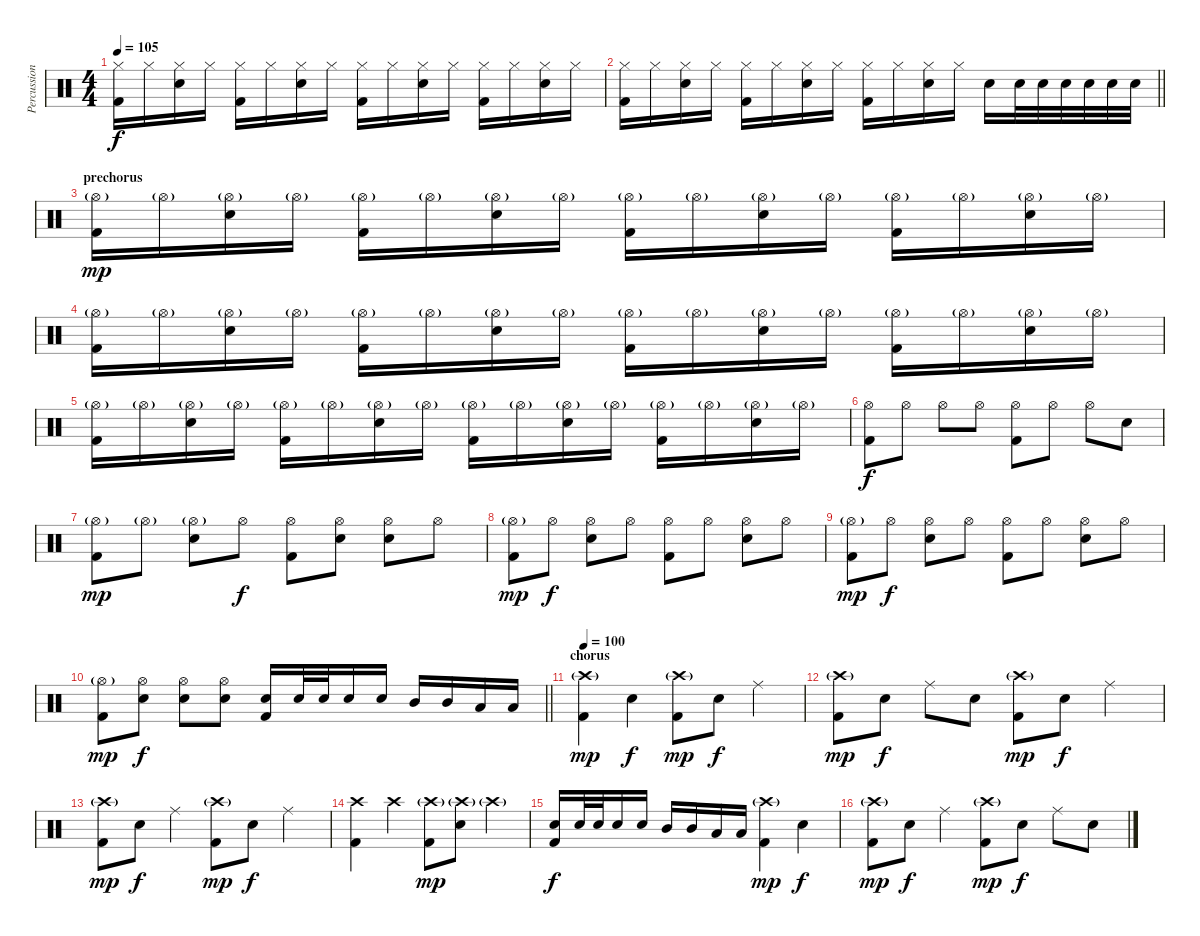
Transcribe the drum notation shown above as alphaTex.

\track ("Percussion" "Percussion") {instrument percussion}
\staff {score}
\articulation defaults
\ts (4 4)
\tempo 105
\clef neutral
\ks c
("Hi-Hat (closed)" "Kick (hit) 2").16{dy f} "Hi-Hat (closed)".16 ("Hi-Hat (closed)" "Electric Snare (hit)").16 "Hi-Hat (closed)".16 ("Hi-Hat (closed)" "Kick (hit) 2").16 "Hi-Hat (closed)".16 ("Hi-Hat (closed)" "Electric Snare (hit)").16 "Hi-Hat (closed)".16 ("Hi-Hat (closed)" "Kick (hit) 2").16 "Hi-Hat (closed)".16 ("Hi-Hat (closed)" "Electric Snare (hit)").16 "Hi-Hat (closed)".16 ("Hi-Hat (closed)" "Kick (hit) 2").16 "Hi-Hat (closed)".16 ("Hi-Hat (closed)" "Electric Snare (hit)").16 "Hi-Hat (closed)".16 |
\barLineRight lightlight
("Hi-Hat (closed)" "Kick (hit) 2").16 "Hi-Hat (closed)".16 ("Hi-Hat (closed)" "Electric Snare (hit)").16 "Hi-Hat (closed)".16 ("Hi-Hat (closed)" "Kick (hit) 2").16 "Hi-Hat (closed)".16 ("Hi-Hat (closed)" "Electric Snare (hit)").16 "Hi-Hat (closed)".16 ("Hi-Hat (closed)" "Kick (hit) 2").16 "Hi-Hat (closed)".16 ("Hi-Hat (closed)" "Electric Snare (hit)").16 "Hi-Hat (closed)".16 "Electric Snare (hit)".16 "Electric Snare (hit)".32 "Electric Snare (hit)".32 "Electric Snare (hit)".32 "Electric Snare (hit)".32 "Electric Snare (hit)".32 "Electric Snare (hit)".32 |
\section ("" "prechorus")
("Hi-Hat (open)"{g} "Kick (hit) 2").16{dy mp} "Hi-Hat (open)"{g}.16 ("Hi-Hat (open)"{g} "Electric Snare (hit)").16 "Hi-Hat (open)"{g}.16 ("Hi-Hat (open)"{g} "Kick (hit) 2").16 "Hi-Hat (open)"{g}.16 ("Hi-Hat (open)"{g} "Electric Snare (hit)").16 "Hi-Hat (open)"{g}.16 ("Hi-Hat (open)"{g} "Kick (hit) 2").16 "Hi-Hat (open)"{g}.16 ("Hi-Hat (open)"{g} "Electric Snare (hit)").16 "Hi-Hat (open)"{g}.16 ("Hi-Hat (open)"{g} "Kick (hit) 2").16 "Hi-Hat (open)"{g}.16 ("Hi-Hat (open)"{g} "Electric Snare (hit)").16 "Hi-Hat (open)"{g}.16 |
("Hi-Hat (open)"{g} "Kick (hit) 2").16 "Hi-Hat (open)"{g}.16 ("Hi-Hat (open)"{g} "Electric Snare (hit)").16 "Hi-Hat (open)"{g}.16 ("Hi-Hat (open)"{g} "Kick (hit) 2").16 "Hi-Hat (open)"{g}.16 ("Hi-Hat (open)"{g} "Electric Snare (hit)").16 "Hi-Hat (open)"{g}.16 ("Hi-Hat (open)"{g} "Kick (hit) 2").16 "Hi-Hat (open)"{g}.16 ("Hi-Hat (open)"{g} "Electric Snare (hit)").16 "Hi-Hat (open)"{g}.16 ("Hi-Hat (open)"{g} "Kick (hit) 2").16 "Hi-Hat (open)"{g}.16 ("Hi-Hat (open)"{g} "Electric Snare (hit)").16 "Hi-Hat (open)"{g}.16 |
("Hi-Hat (open)"{g} "Kick (hit) 2").16 "Hi-Hat (open)"{g}.16 ("Hi-Hat (open)"{g} "Electric Snare (hit)").16 "Hi-Hat (open)"{g}.16 ("Hi-Hat (open)"{g} "Kick (hit) 2").16 "Hi-Hat (open)"{g}.16 ("Hi-Hat (open)"{g} "Electric Snare (hit)").16 "Hi-Hat (open)"{g}.16 ("Hi-Hat (open)"{g} "Kick (hit) 2").16 "Hi-Hat (open)"{g}.16 ("Hi-Hat (open)"{g} "Electric Snare (hit)").16 "Hi-Hat (open)"{g}.16 ("Hi-Hat (open)"{g} "Kick (hit) 2").16 "Hi-Hat (open)"{g}.16 ("Hi-Hat (open)"{g} "Electric Snare (hit)").16 "Hi-Hat (open)"{g}.16 |
("Hi-Hat (open)" "Kick (hit) 2").8{dy f} "Hi-Hat (open)".8 "Hi-Hat (open)".8 "Hi-Hat (open)".8 ("Hi-Hat (open)" "Kick (hit) 2").8 "Hi-Hat (open)".8 "Hi-Hat (open)".8 "Electric Snare (hit)".8 |
("Hi-Hat (open)"{g} "Kick (hit) 2").8{dy mp} "Hi-Hat (open)"{g}.8 ("Hi-Hat (open)"{g} "Electric Snare (hit)").8 "Hi-Hat (open)".8{dy f} ("Hi-Hat (open)" "Kick (hit) 2").8 ("Hi-Hat (open)" "Electric Snare (hit)").8 ("Hi-Hat (open)" "Electric Snare (hit)").8 "Hi-Hat (open)".8 |
("Hi-Hat (open)"{g} "Kick (hit) 2").8{dy mp} "Hi-Hat (open)".8{dy f} ("Hi-Hat (open)" "Electric Snare (hit)").8 "Hi-Hat (open)".8 ("Hi-Hat (open)" "Kick (hit) 2").8 "Hi-Hat (open)".8 ("Hi-Hat (open)" "Electric Snare (hit)").8 "Hi-Hat (open)".8 |
("Hi-Hat (open)"{g} "Kick (hit) 2").8{dy mp} "Hi-Hat (open)".8{dy f} ("Hi-Hat (open)" "Electric Snare (hit)").8 "Hi-Hat (open)".8 ("Hi-Hat (open)" "Kick (hit) 2").8 "Hi-Hat (open)".8 ("Hi-Hat (open)" "Electric Snare (hit)").8 "Hi-Hat (open)".8 |
\barLineRight lightlight
("Hi-Hat (open)"{g} "Kick (hit) 2").8{dy mp} ("Hi-Hat (open)" "Electric Snare (hit)").8{dy f} ("Hi-Hat (open)" "Electric Snare (hit)").8 ("Hi-Hat (open)" "Electric Snare (hit)").8 ("Electric Snare (hit)" "Kick (hit) 2").16 "Electric Snare (hit)".32 "Electric Snare (hit)".32 "Electric Snare (hit)".16 "Electric Snare (hit)".16 "Mid Tom (hit)".16 "Mid Tom (hit)".16 "Low Tom (hit)".16 "Low Tom (hit)".16 |
\section ("" "chorus")
\tempo 100
("Crash high (hit)"{g} "Kick (hit) 2").4{dy mp} "Electric Snare (hit)".4{dy f} ("Crash high (hit)"{g} "Kick (hit) 2").8{dy mp} "Electric Snare (hit)".8{dy f} "Ride (middle)".4 |
("Crash high (hit)"{g} "Kick (hit) 2").8{dy mp} "Electric Snare (hit)".8{dy f} "Ride (middle)".8 "Electric Snare (hit)".8 ("Crash high (hit)"{g} "Kick (hit) 2").8{dy mp} "Electric Snare (hit)".8{dy f} "Ride (middle)".4 |
("Crash high (hit)"{g} "Kick (hit) 2").8{dy mp} "Electric Snare (hit)".8{dy f} "Ride (middle)".4 ("Crash high (hit)"{g} "Kick (hit) 2").8{dy mp} "Electric Snare (hit)".8{dy f} "Ride (middle)".4 |
("Crash high (hit)" "Kick (hit) 2").4 "Crash high (hit)".4 ("Crash high (hit)"{g} "Kick (hit) 2").8{dy mp} ("Crash high (hit)"{g} "Electric Snare (hit)").8 "Crash high (hit)"{g}.4 |
("Electric Snare (hit)" "Kick (hit) 2").16{dy f} "Electric Snare (hit)".32 "Electric Snare (hit)".32 "Electric Snare (hit)".16 "Electric Snare (hit)".16 "Mid Tom (hit)".16 "Mid Tom (hit)".16 "Low Tom (hit)".16 "Low Tom (hit)".16 ("Crash high (hit)"{g} "Kick (hit) 2").4{dy mp} "Electric Snare (hit)".4{dy f} |
("Crash high (hit)"{g} "Kick (hit) 2").8{dy mp} "Electric Snare (hit)".8{dy f} "Ride (middle)".4 ("Crash high (hit)"{g} "Kick (hit) 2").8{dy mp} "Electric Snare (hit)".8{dy f} "Ride (middle)".8 "Electric Snare (hit)".8
